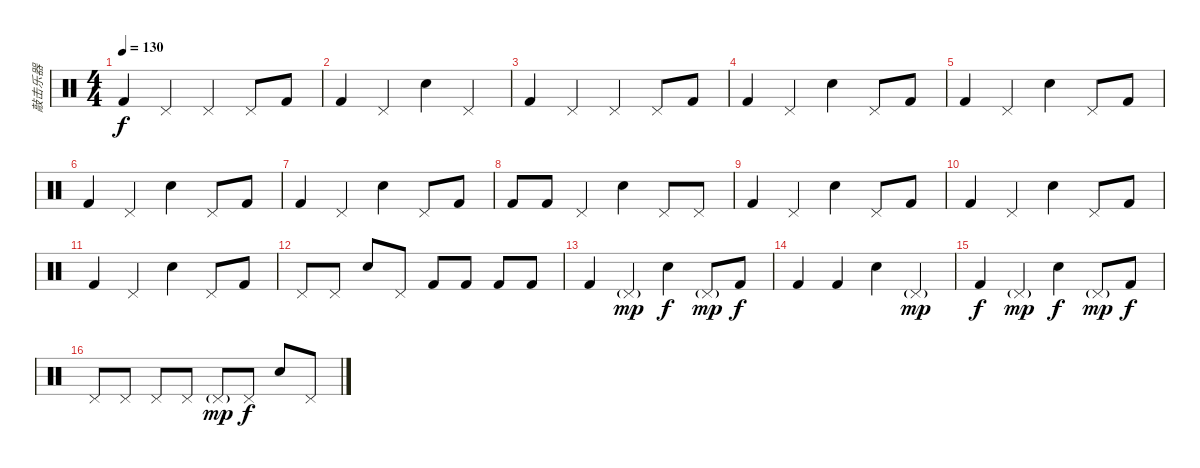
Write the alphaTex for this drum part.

\track ("敲击乐器" "敲击乐器") {instrument percussion}
\staff {score}
\articulation defaults
\ts (4 4)
\tempo 130
\clef neutral
\ks c "Kick (hit) 2".4{dy f} "Pedal Hi-Hat (hit)".4 "Pedal Hi-Hat (hit)".4 "Pedal Hi-Hat (hit)".8 "Kick (hit) 2".8
|
"Kick (hit) 2".4 "Pedal Hi-Hat (hit)".4 "Snare (hit) 2".4 "Pedal Hi-Hat (hit)".4 |
"Kick (hit) 2".4 "Pedal Hi-Hat (hit)".4 "Pedal Hi-Hat (hit)".4 "Pedal Hi-Hat (hit)".8 "Kick (hit) 2".8 |
"Kick (hit) 2".4 "Pedal Hi-Hat (hit)".4 "Snare (hit) 2".4 "Pedal Hi-Hat (hit)".8 "Kick (hit) 2".8 |
"Kick (hit) 2".4 "Pedal Hi-Hat (hit)".4 "Snare (hit) 2".4 "Pedal Hi-Hat (hit)".8 "Kick (hit) 2".8 |
"Kick (hit) 2".4 "Pedal Hi-Hat (hit)".4 "Snare (hit) 2".4 "Pedal Hi-Hat (hit)".8 "Kick (hit) 2".8 |
"Kick (hit) 2".4 "Pedal Hi-Hat (hit)".4 "Snare (hit) 2".4 "Pedal Hi-Hat (hit)".8 "Kick (hit) 2".8 |
"Kick (hit) 2".8 "Kick (hit) 2".8 "Pedal Hi-Hat (hit)".4 "Snare (hit) 2".4 "Pedal Hi-Hat (hit)".8 "Pedal Hi-Hat (hit)".8 |
"Kick (hit) 2".4 "Pedal Hi-Hat (hit)".4 "Snare (hit) 2".4 "Pedal Hi-Hat (hit)".8 "Kick (hit) 2".8 |
"Kick (hit) 2".4 "Pedal Hi-Hat (hit)".4 "Snare (hit) 2".4 "Pedal Hi-Hat (hit)".8 "Kick (hit) 2".8 |
"Kick (hit) 2".4 "Pedal Hi-Hat (hit)".4 "Snare (hit) 2".4 "Pedal Hi-Hat (hit)".8 "Kick (hit) 2".8 |
"Pedal Hi-Hat (hit)".8 "Pedal Hi-Hat (hit)".8 "Snare (hit) 2".8 "Pedal Hi-Hat (hit)".8 "Kick (hit) 2".8 "Kick (hit) 2".8 "Kick (hit) 2".8 "Kick (hit) 2".8 |
"Kick (hit) 2".4 "Pedal Hi-Hat (hit)"{g}.4{dy mp} "Snare (hit) 2".4{dy f} "Pedal Hi-Hat (hit)"{g}.8{dy mp} "Kick (hit) 2".8{dy f} |
"Kick (hit) 2".4 "Kick (hit) 2".4 "Snare (hit) 2".4 "Pedal Hi-Hat (hit)"{g}.4{dy mp} |
"Kick (hit) 2".4{dy f} "Pedal Hi-Hat (hit)"{g}.4{dy mp} "Snare (hit) 2".4{dy f} "Pedal Hi-Hat (hit)"{g}.8{dy mp} "Kick (hit) 2".8{dy f} |
"Pedal Hi-Hat (hit)".8 "Pedal Hi-Hat (hit)".8 "Pedal Hi-Hat (hit)".8 "Pedal Hi-Hat (hit)".8 "Pedal Hi-Hat (hit)"{g}.8{dy mp} "Pedal Hi-Hat (hit)".8{dy f} "Snare (hit) 2".8 "Pedal Hi-Hat (hit)".8
